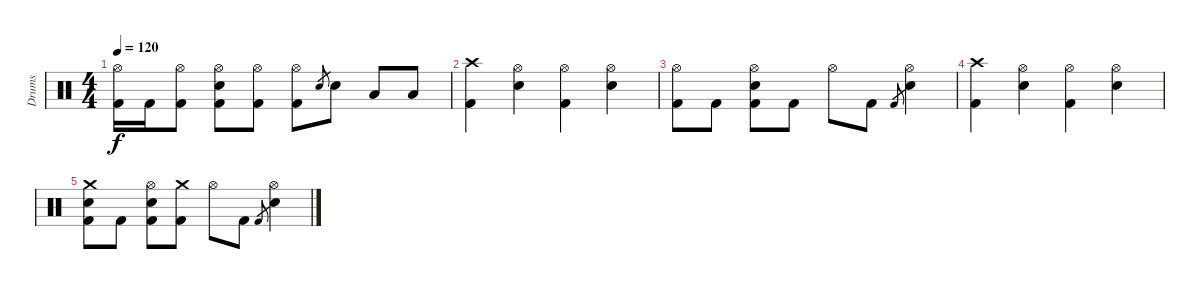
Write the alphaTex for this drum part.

\track ("Drums" "Drums") {instrument percussion}
\staff {score}
\articulation defaults
\ts (4 4)
\tempo 120
\clef neutral
\ks c
("Hi-Hat (open)" "Kick (hit) 2").16{dy f} "Kick (hit) 2".16 ("Hi-Hat (open)" "Kick (hit) 2").8 ("Hi-Hat (open)" "Kick (hit) 2" "Electric Snare (hit)").8 ("Hi-Hat (open)" "Kick (hit) 2").8 ("Hi-Hat (open)" "Kick (hit) 2").8 "Electric Snare (hit)".8{gr} "Electric Snare (hit)".8 "Low Tom (hit)".8 "Low Floor Tom (hit)".8 |
("Crash high (hit)" "Kick (hit) 2").4 ("Hi-Hat (open)" "Electric Snare (hit)").4 ("Hi-Hat (open)" "Kick (hit) 2").4 ("Hi-Hat (open)" "Electric Snare (hit)").4 |
("Hi-Hat (open)" "Kick (hit) 2").8 "Kick (hit) 2".8 ("Hi-Hat (open)" "Kick (hit) 2" "Electric Snare (hit)").8 "Kick (hit) 2".8 "Hi-Hat (open)".8 "Kick (hit) 2".8 "Kick (hit) 2".8{gr} ("Hi-Hat (open)" "Electric Snare (hit)").4 |
("Crash high (hit)" "Kick (hit) 2").4 ("Hi-Hat (open)" "Electric Snare (hit)").4 ("Hi-Hat (open)" "Kick (hit) 2").4 ("Hi-Hat (open)" "Electric Snare (hit)").4 |
("Crash medium (hit)" "Electric Snare (hit)" "Kick (hit) 2").8 "Kick (hit) 2".8 ("Hi-Hat (open)" "Kick (hit) 2" "Electric Snare (hit)").8 ("Crash medium (hit)" "Kick (hit) 2").8 "Hi-Hat (open)".8 "Kick (hit) 2".8 "Kick (hit) 2".8{gr} ("Hi-Hat (open)" "Electric Snare (hit)").4
